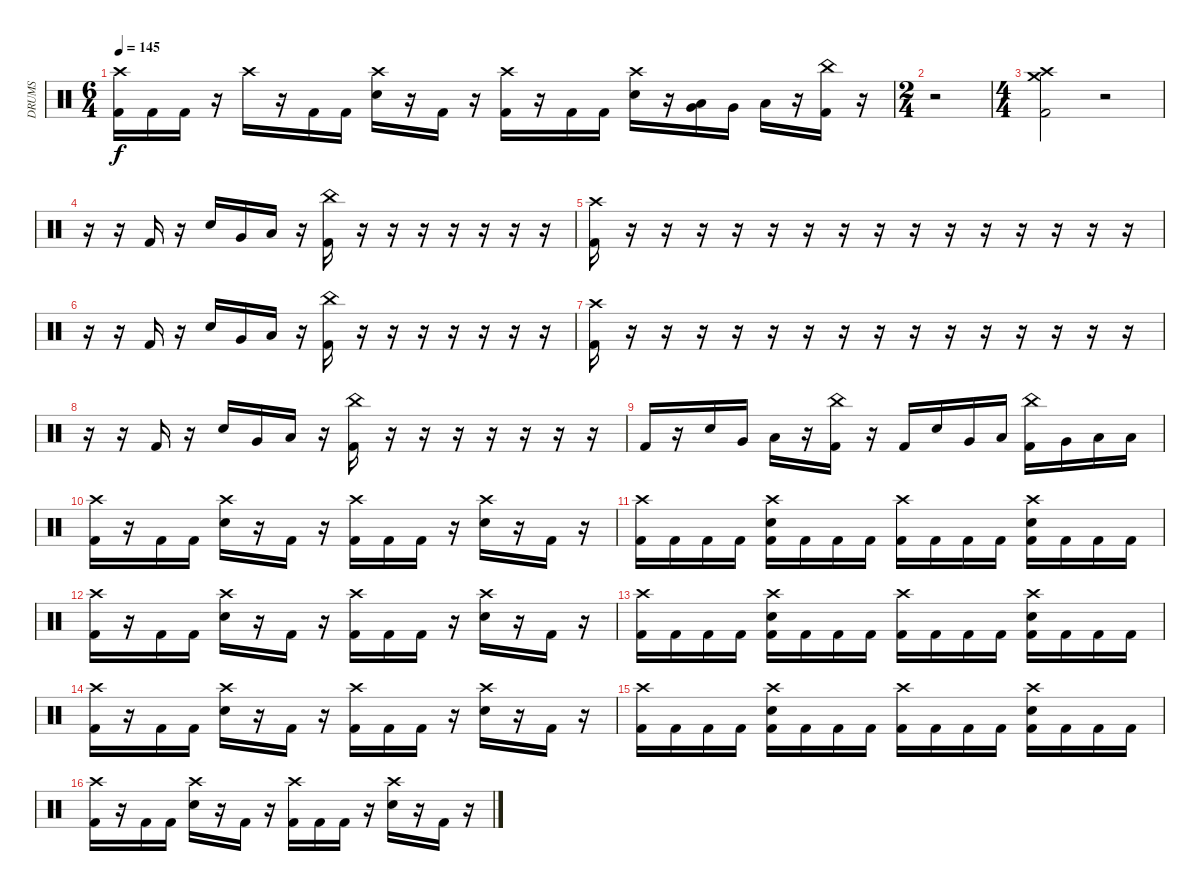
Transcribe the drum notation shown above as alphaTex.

\track ("DRUMS" "DRUMS") {instrument percussion}
\staff {score}
\articulation defaults
\ts (6 4)
\tempo 145
\clef neutral
\ks c
("Crash high (hit)" "Kick (hit) 2").16{dy f} "Kick (hit) 2".16 "Kick (hit) 2".16 r.16 "Crash high (hit)".16 r.16 "Kick (hit) 2".16 "Kick (hit) 2".16 ("Crash high (hit)" "Electric Snare (hit)").16 r.16 "Kick (hit) 2".16 r.16 ("Crash high (hit)" "Kick (hit) 2").16 r.16 "Kick (hit) 2".16 "Kick (hit) 2".16 ("Crash high (hit)" "Electric Snare (hit)").16 r.16 ("Low Tom (hit)" "Very Low Tom (hit)").16 "Very Low Tom (hit)".16 "Low Floor Tom (hit)".16 r.16 ("China (hit)" "Kick (hit) 2").16 r.16 |
\ts (2 4)
r.2 |
\ts (4 4)
("Crash medium (hit)" "Crash high (hit)" "Kick (hit) 2").2 r.2 |
r.16 r.16 "Kick (hit) 2".16 r.16 "Electric Snare (hit)".16 "Very Low Tom (hit)".16 "Low Floor Tom (hit)".16 r.16 ("China (hit)" "Kick (hit) 2").16 r.16 r.16 r.16 r.16 r.16 r.16 r.16 |
("Crash high (hit)" "Kick (hit) 2").16 r.16 r.16 r.16 r.16 r.16 r.16 r.16 r.16 r.16 r.16 r.16 r.16 r.16 r.16 r.16 |
r.16 r.16 "Kick (hit) 2".16 r.16 "Electric Snare (hit)".16 "Very Low Tom (hit)".16 "Low Floor Tom (hit)".16 r.16 ("China (hit)" "Kick (hit) 2").16 r.16 r.16 r.16 r.16 r.16 r.16 r.16 |
("Crash high (hit)" "Kick (hit) 2").16 r.16 r.16 r.16 r.16 r.16 r.16 r.16 r.16 r.16 r.16 r.16 r.16 r.16 r.16 r.16 |
r.16 r.16 "Kick (hit) 2".16 r.16 "Electric Snare (hit)".16 "Very Low Tom (hit)".16 "Low Floor Tom (hit)".16 r.16 ("China (hit)" "Kick (hit) 2").16 r.16 r.16 r.16 r.16 r.16 r.16 r.16 |
"Kick (hit) 2".16 r.16 "Electric Snare (hit)".16 "Very Low Tom (hit)".16 "Low Floor Tom (hit)".16 r.16 ("China (hit)" "Kick (hit) 2").16 r.16 "Kick (hit) 2".16 "Electric Snare (hit)".16 "Very Low Tom (hit)".16 "Low Floor Tom (hit)".16 ("China (hit)" "Kick (hit) 2").16 "Very Low Tom (hit)".16 "Low Floor Tom (hit)".16 "Low Floor Tom (hit)".16 |
("Crash high (hit)" "Kick (hit) 2").16 r.16 "Kick (hit) 2".16 "Kick (hit) 2".16 ("Crash high (hit)" "Electric Snare (hit)").16 r.16 "Kick (hit) 2".16 r.16 ("Crash high (hit)" "Kick (hit) 2").16 "Kick (hit) 2".16 "Kick (hit) 2".16 r.16 ("Crash high (hit)" "Electric Snare (hit)").16 r.16 "Kick (hit) 2".16 r.16 |
("Crash high (hit)" "Kick (hit) 2").16 "Kick (hit) 2".16 "Kick (hit) 2".16 "Kick (hit) 2".16 ("Crash high (hit)" "Electric Snare (hit)" "Kick (hit) 2").16 "Kick (hit) 2".16 "Kick (hit) 2".16 "Kick (hit) 2".16 ("Crash high (hit)" "Kick (hit) 2").16 "Kick (hit) 2".16 "Kick (hit) 2".16 "Kick (hit) 2".16 ("Crash high (hit)" "Electric Snare (hit)" "Kick (hit) 2").16 "Kick (hit) 2".16 "Kick (hit) 2".16 "Kick (hit) 2".16 |
("Crash high (hit)" "Kick (hit) 2").16 r.16 "Kick (hit) 2".16 "Kick (hit) 2".16 ("Crash high (hit)" "Electric Snare (hit)").16 r.16 "Kick (hit) 2".16 r.16 ("Crash high (hit)" "Kick (hit) 2").16 "Kick (hit) 2".16 "Kick (hit) 2".16 r.16 ("Crash high (hit)" "Electric Snare (hit)").16 r.16 "Kick (hit) 2".16 r.16 |
("Crash high (hit)" "Kick (hit) 2").16 "Kick (hit) 2".16 "Kick (hit) 2".16 "Kick (hit) 2".16 ("Crash high (hit)" "Electric Snare (hit)" "Kick (hit) 2").16 "Kick (hit) 2".16 "Kick (hit) 2".16 "Kick (hit) 2".16 ("Crash high (hit)" "Kick (hit) 2").16 "Kick (hit) 2".16 "Kick (hit) 2".16 "Kick (hit) 2".16 ("Crash high (hit)" "Electric Snare (hit)" "Kick (hit) 2").16 "Kick (hit) 2".16 "Kick (hit) 2".16 "Kick (hit) 2".16 |
("Crash high (hit)" "Kick (hit) 2").16 r.16 "Kick (hit) 2".16 "Kick (hit) 2".16 ("Crash high (hit)" "Electric Snare (hit)").16 r.16 "Kick (hit) 2".16 r.16 ("Crash high (hit)" "Kick (hit) 2").16 "Kick (hit) 2".16 "Kick (hit) 2".16 r.16 ("Crash high (hit)" "Electric Snare (hit)").16 r.16 "Kick (hit) 2".16 r.16 |
("Crash high (hit)" "Kick (hit) 2").16 "Kick (hit) 2".16 "Kick (hit) 2".16 "Kick (hit) 2".16 ("Crash high (hit)" "Electric Snare (hit)" "Kick (hit) 2").16 "Kick (hit) 2".16 "Kick (hit) 2".16 "Kick (hit) 2".16 ("Crash high (hit)" "Kick (hit) 2").16 "Kick (hit) 2".16 "Kick (hit) 2".16 "Kick (hit) 2".16 ("Crash high (hit)" "Electric Snare (hit)" "Kick (hit) 2").16 "Kick (hit) 2".16 "Kick (hit) 2".16 "Kick (hit) 2".16 |
("Crash high (hit)" "Kick (hit) 2").16 r.16 "Kick (hit) 2".16 "Kick (hit) 2".16 ("Crash high (hit)" "Electric Snare (hit)").16 r.16 "Kick (hit) 2".16 r.16 ("Crash high (hit)" "Kick (hit) 2").16 "Kick (hit) 2".16 "Kick (hit) 2".16 r.16 ("Crash high (hit)" "Electric Snare (hit)").16 r.16 "Kick (hit) 2".16 r.16
